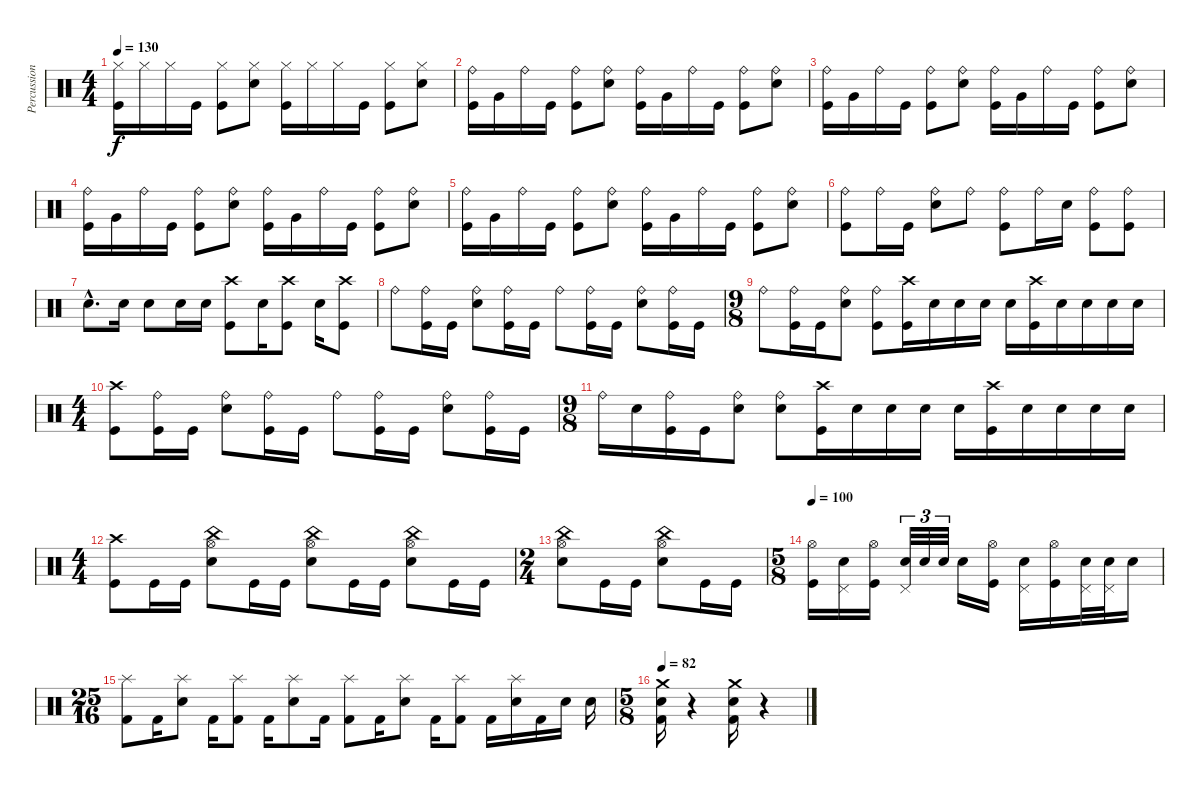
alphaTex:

\track ("Percussion" "Percussion") {instrument percussion}
\staff {score}
\articulation defaults
\ts (4 4)
\tempo 130
\clef neutral
\ks c
("Kick (hit)" "Hi-Hat (closed)").16{dy f} "Hi-Hat (closed)".16 "Hi-Hat (closed)".16 "Kick (hit)".16 ("Kick (hit)" "Hi-Hat (closed)").8 ("Electric Snare (hit)" "Hi-Hat (closed)").8 ("Kick (hit)" "Hi-Hat (closed)").16 "Hi-Hat (closed)".16 "Hi-Hat (closed)".16 "Kick (hit)".16 ("Kick (hit)" "Hi-Hat (closed)").8 ("Electric Snare (hit)" "Hi-Hat (closed)").8 |
("Ride (bell)" "Kick (hit)").16 "Very Low Tom (hit)".16 "Ride (bell)".16 "Kick (hit)".16 ("Ride (bell)" "Kick (hit)").8 ("Ride (bell)" "Electric Snare (hit)").8 ("Ride (bell)" "Kick (hit)").16 "Very Low Tom (hit)".16 "Ride (bell)".16 "Kick (hit)".16 ("Ride (bell)" "Kick (hit)").8 ("Ride (bell)" "Electric Snare (hit)").8 |
("Ride (bell)" "Kick (hit)").16 "Very Low Tom (hit)".16 "Ride (bell)".16 "Kick (hit)".16 ("Ride (bell)" "Kick (hit)").8 ("Ride (bell)" "Electric Snare (hit)").8 ("Ride (bell)" "Kick (hit)").16 "Very Low Tom (hit)".16 "Ride (bell)".16 "Kick (hit)".16 ("Ride (bell)" "Kick (hit)").8 ("Ride (bell)" "Electric Snare (hit)").8 |
("Ride (bell)" "Kick (hit)").16 "Very Low Tom (hit)".16 "Ride (bell)".16 "Kick (hit)".16 ("Ride (bell)" "Kick (hit)").8 ("Ride (bell)" "Electric Snare (hit)").8 ("Ride (bell)" "Kick (hit)").16 "Very Low Tom (hit)".16 "Ride (bell)".16 "Kick (hit)".16 ("Ride (bell)" "Kick (hit)").8 ("Ride (bell)" "Electric Snare (hit)").8 |
("Ride (bell)" "Kick (hit)").16 "Very Low Tom (hit)".16 "Ride (bell)".16 "Kick (hit)".16 ("Ride (bell)" "Kick (hit)").8 ("Ride (bell)" "Electric Snare (hit)").8 ("Ride (bell)" "Kick (hit)").16 "Very Low Tom (hit)".16 "Ride (bell)".16 "Kick (hit)".16 ("Ride (bell)" "Kick (hit)").8 ("Ride (bell)" "Electric Snare (hit)").8 |
("Ride (bell)" "Kick (hit)").8 "Ride (bell)".16 "Kick (hit)".16 ("Ride (bell)" "Electric Snare (hit)").8 "Ride (bell)".8 ("Ride (bell)" "Kick (hit)").8 "Ride (bell)".16 "Electric Snare (hit)".16 ("Ride (bell)" "Kick (hit)").8 ("Ride (bell)" "Kick (hit)").8 |
"Snare (hit) 2"{hac}.8{d} "Snare (hit) 2".16 "Snare (hit) 2".8 "Snare (hit) 2".16 "Snare (hit) 2".16 ("Kick (hit)" "Crash high (hit)").8 "Electric Snare (hit)".16 ("Kick (hit)" "Crash high (hit)").8 "Electric Snare (hit)".16 ("Kick (hit)" "Crash high (hit)").8 |
"Ride (bell)".8 ("Ride (bell)" "Kick (hit)").16 "Kick (hit)".16 ("Ride (bell)" "Snare (hit) 2").8 ("Ride (bell)" "Kick (hit)").16 "Kick (hit)".16 "Ride (bell)".8 ("Ride (bell)" "Kick (hit)").16 "Kick (hit)".16 ("Ride (bell)" "Snare (hit) 2").8 ("Ride (bell)" "Kick (hit)").16 "Kick (hit)".16 |
\ts (9 8)
"Ride (bell)".8 ("Ride (bell)" "Kick (hit)").16 "Kick (hit)".16 ("Snare (hit) 2" "Ride (bell)").8 ("Kick (hit)" "Ride (bell)").8 ("Kick (hit)" "Crash high (hit)").16 "Snare (hit) 2".16 "Snare (hit) 2".16 "Snare (hit) 2".16 "Snare (hit) 2".16 ("Kick (hit)" "Crash high (hit)").16 "Snare (hit) 2".16 "Snare (hit) 2".16 "Snare (hit) 2".16 "Snare (hit) 2".16 |
\ts (4 4)
("Kick (hit)" "Crash high (hit)").8 ("Ride (bell)" "Kick (hit)").16 "Kick (hit)".16 ("Ride (bell)" "Snare (hit) 2").8 ("Ride (bell)" "Kick (hit)").16 "Kick (hit)".16 "Ride (bell)".8 ("Ride (bell)" "Kick (hit)").16 "Kick (hit)".16 ("Ride (bell)" "Snare (hit) 2").8 ("Ride (bell)" "Kick (hit)").16 "Kick (hit)".16 |
\ts (9 8)
"Ride (bell)".16 "Snare (hit) 2".16 ("Ride (bell)" "Kick (hit)").16 "Kick (hit)".16 ("Snare (hit) 2" "Ride (bell)").8 ("Snare (hit) 2" "Ride (bell)").8 ("Kick (hit)" "Crash high (hit)").16 "Snare (hit) 2".16 "Snare (hit) 2".16 "Snare (hit) 2".16 "Snare (hit) 2".16 ("Kick (hit)" "Crash high (hit)").16 "Snare (hit) 2".16 "Snare (hit) 2".16 "Snare (hit) 2".16 "Snare (hit) 2".16 |
\ts (4 4)
("Crash high (hit)" "Kick (hit)").8 "Kick (hit)".16 "Kick (hit)".16 ("Hi-Hat (open)" "China (hit)" "Snare (hit) 2").8 "Kick (hit)".16 "Kick (hit)".16 ("Hi-Hat (open)" "China (hit)" "Snare (hit) 2").8 "Kick (hit)".16 "Kick (hit)".16 ("Hi-Hat (open)" "China (hit)" "Snare (hit) 2").8 "Kick (hit)".16 "Kick (hit)".16 |
\ts (2 4)
("Snare (hit) 2" "Hi-Hat (open)" "China (hit)").8 "Kick (hit)".16 "Kick (hit)".16 ("Snare (hit) 2" "Hi-Hat (open)" "China (hit)").8 "Kick (hit)".16 "Kick (hit)".16 |
\ts (5 8)
\tempo 100
("Hi-Hat (open)" "Kick (hit)").16 ("Electric Snare (hit)" "Pedal Hi-Hat (hit)").16 ("Hi-Hat (open)" "Kick (hit)").16 ("Electric Snare (hit)" "Pedal Hi-Hat (hit)").32{tu (3 2)} "Electric Snare (hit)".32{tu (3 2)} "Electric Snare (hit)".32{tu (3 2)} "Electric Snare (hit)".16 ("Hi-Hat (open)" "Kick (hit)").16 ("Electric Snare (hit)" "Pedal Hi-Hat (hit)").16 ("Hi-Hat (open)" "Kick (hit)").16 ("Electric Snare (hit)" "Pedal Hi-Hat (hit)").32 ("Electric Snare (hit)" "Pedal Hi-Hat (hit)").32 "Electric Snare (hit)".16 |
\ts (25 16)
("Splash (hit)" "Kick (hit) 2").8 "Kick (hit) 2".16 ("Splash (hit)" "Electric Snare (hit)").8 "Kick (hit) 2".16 ("Splash (hit)" "Kick (hit) 2").8 "Kick (hit) 2".16 ("Splash (hit)" "Electric Snare (hit)").8 "Kick (hit) 2".16 ("Splash (hit)" "Kick (hit) 2").8 "Kick (hit) 2".16 ("Splash (hit)" "Electric Snare (hit)").8 "Kick (hit) 2".16 ("Splash (hit)" "Kick (hit) 2").8 "Kick (hit) 2".16 ("Splash (hit)" "Electric Snare (hit)").16 "Kick (hit) 2".16 "Electric Snare (hit)".16 "Electric Snare (hit)".16 |
\ts (5 8)
\tempo 82
("Crash medium (hit)" "Electric Snare (hit)" "Kick (hit) 2").16 r.4 ("Crash medium (hit)" "Electric Snare (hit)" "Kick (hit) 2").16 r.4
